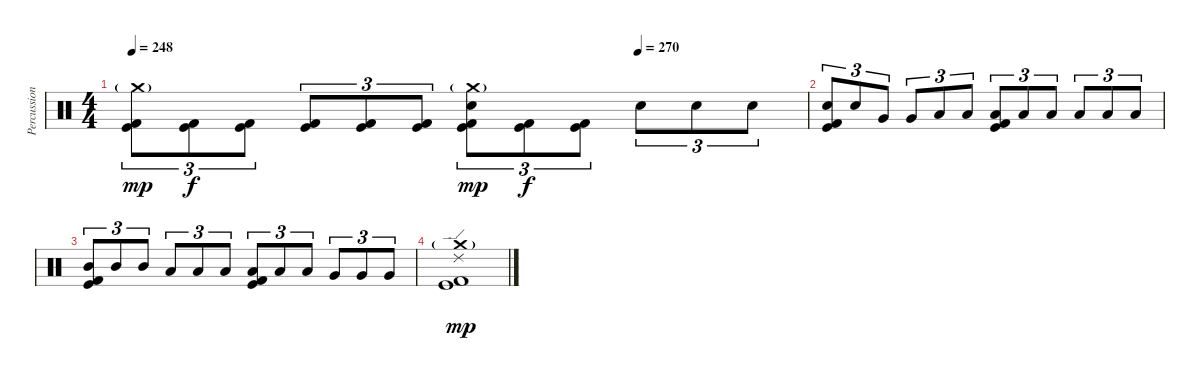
\track ("Percussion" "Percussion") {instrument percussion}
\staff {score}
\articulation defaults
\ts (4 4)
\tempo 248
\tempo (270 0.75)
\clef neutral
\ks c
("Crash medium (hit)"{g} "Kick (hit)" "Kick (hit) 2").8{tu (3 2) dy mp} ("Kick (hit)" "Kick (hit) 2").8{tu (3 2) dy f} ("Kick (hit)" "Kick (hit) 2").8{tu (3 2)} ("Kick (hit)" "Kick (hit) 2").8{tu (3 2)} ("Kick (hit)" "Kick (hit) 2").8{tu (3 2)} ("Kick (hit)" "Kick (hit) 2").8{tu (3 2)} ("Crash medium (hit)"{g} "Electric Snare (hit)" "Kick (hit)" "Kick (hit) 2").8{tu (3 2) dy mp} ("Kick (hit)" "Kick (hit) 2").8{tu (3 2) dy f} ("Kick (hit)" "Kick (hit) 2").8{tu (3 2)} "Electric Snare (hit)".8{tu (3 2)} "Electric Snare (hit)".8{tu (3 2)} "Electric Snare (hit)".8{tu (3 2)} |
("Electric Snare (hit)" "Kick (hit)" "Kick (hit) 2").8{tu (3 2)} "Electric Snare (hit)".8{tu (3 2)} "Very Low Tom (hit)".8{tu (3 2)} "Very Low Tom (hit)".8{tu (3 2)} "Low Tom (hit)".8{tu (3 2)} "Low Tom (hit)".8{tu (3 2)} ("Low Floor Tom (hit)" "Kick (hit)" "Kick (hit) 2").8{tu (3 2)} "Low Floor Tom (hit)".8{tu (3 2)} "Low Floor Tom (hit)".8{tu (3 2)} "Low Tom (hit)".8{tu (3 2)} "Low Tom (hit)".8{tu (3 2)} "Low Tom (hit)".8{tu (3 2)} |
("Mid Tom (hit)" "Kick (hit)" "Kick (hit) 2").8{tu (3 2)} "Mid Tom (hit)".8{tu (3 2)} "Mid Tom (hit)".8{tu (3 2)} "Low Tom (hit)".8{tu (3 2)} "Low Tom (hit)".8{tu (3 2)} "Low Tom (hit)".8{tu (3 2)} ("Low Floor Tom (hit)" "Kick (hit)" "Kick (hit) 2").8{tu (3 2)} "Low Floor Tom (hit)".8{tu (3 2)} "Low Floor Tom (hit)".8{tu (3 2)} "Very Low Tom (hit)".8{tu (3 2)} "Very Low Tom (hit)".8{tu (3 2)} "Very Low Tom (hit)".8{tu (3 2)} |
("Crash medium (hit)"{g} "Ride (edge) 2" "Kick (hit)" "Kick (hit) 2").1{dy mp}
